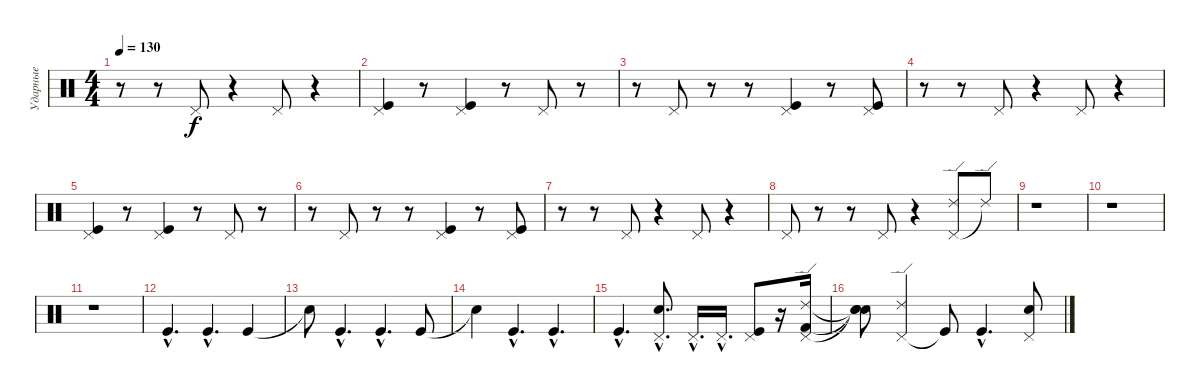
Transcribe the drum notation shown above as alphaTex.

\track ("Ударные" "Ударные") {instrument percussion}
\staff {score}
\articulation defaults
\ts (4 4)
\tempo 130
\clef neutral
\ks c
r.8{dy f} r.8 "Pedal Hi-Hat (hit)".8 r.4 "Pedal Hi-Hat (hit)".8 r.4 |
("Pedal Hi-Hat (hit)" "Kick (hit)").4 r.8 ("Pedal Hi-Hat (hit)" "Kick (hit)").4 r.8 "Pedal Hi-Hat (hit)".8 r.8 |
r.8 "Pedal Hi-Hat (hit)".8 r.8 r.8 ("Pedal Hi-Hat (hit)" "Kick (hit)").4 r.8 ("Pedal Hi-Hat (hit)" "Kick (hit)").8 |
r.8 r.8 "Pedal Hi-Hat (hit)".8 r.4 "Pedal Hi-Hat (hit)".8 r.4 |
("Pedal Hi-Hat (hit)" "Kick (hit)").4 r.8 ("Pedal Hi-Hat (hit)" "Kick (hit)").4 r.8 "Pedal Hi-Hat (hit)".8 r.8 |
r.8 "Pedal Hi-Hat (hit)".8 r.8 r.8 ("Pedal Hi-Hat (hit)" "Kick (hit)").4 r.8 ("Pedal Hi-Hat (hit)" "Kick (hit)").8 |
r.8 r.8 "Pedal Hi-Hat (hit)".8 r.4 "Pedal Hi-Hat (hit)".8 r.4 |
"Pedal Hi-Hat (hit)".8 r.8 r.8 "Pedal Hi-Hat (hit)".8 r.4 ("Pedal Hi-Hat (hit)" "Ride (edge) 2").8 "Ride (edge) 2"{t}.8 |
r.1 |
r.1 |
r.1 |
"Kick (hit)"{hac}.4{d} "Kick (hit)"{hac}.4{d} "Kick (hit)".4 |
"Snare (hit)"{t}.8 "Kick (hit)"{hac}.4{d} "Kick (hit)"{hac}.4{d} "Kick (hit)".8 |
"Snare (hit)"{t}.4 "Kick (hit)"{hac}.4{d} "Kick (hit)"{hac}.4{d} |
"Kick (hit)"{hac}.4{d} ("Pedal Hi-Hat (hit)"{hac} "Electric Snare (hit)"{hac}).8{d} "Pedal Hi-Hat (hit)"{hac}.16{d} "Pedal Hi-Hat (hit)"{hac}.16{d} ("Pedal Hi-Hat (hit)" "Kick (hit)").8 r.16 ("Pedal Hi-Hat (hit)" "Ride (edge) 2" "Kick (hit) 2").16 |
("Snare (hit)"{t} "Snare (hit)"{t} "Snare (hit)"{t}).8 ("Pedal Hi-Hat (hit)" "Ride (edge) 2").4 "Kick (hit)"{t}.8 "Kick (hit)"{hac}.4{d} ("Pedal Hi-Hat (hit)" "Electric Snare (hit)").8
